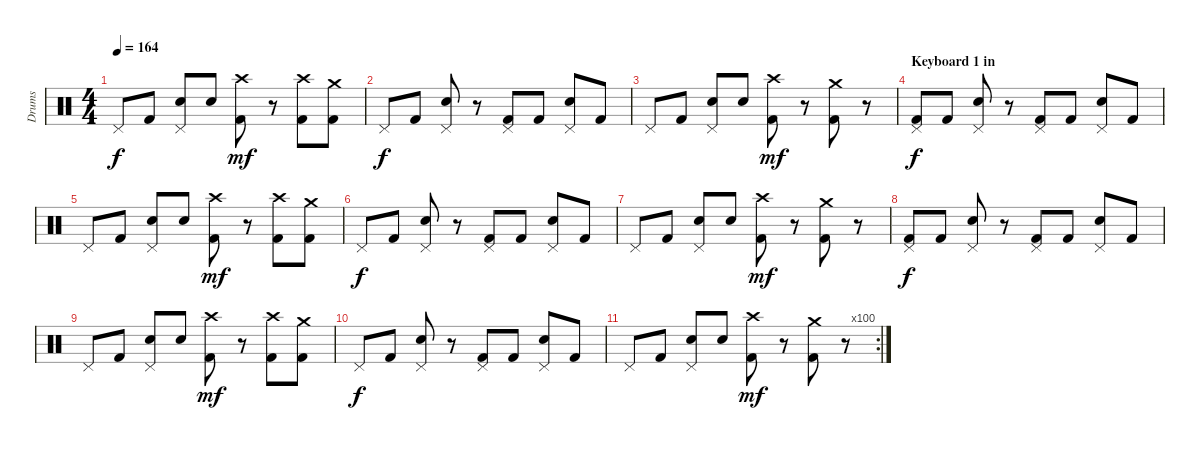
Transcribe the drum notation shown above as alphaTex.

\track ("Drums" "Drums") {instrument percussion}
\staff {score}
\articulation defaults
\ts (4 4)
\tempo 164
\clef neutral
\ks c "Pedal Hi-Hat (hit)".8{dy f} "Kick (hit) 2".8
("Pedal Hi-Hat (hit)" "Snare (hit) 2").8 "Snare (hit) 2".8 ("Crash high (hit)" "Kick (hit) 2").8{dy mf} r.8 ("Crash high (hit)" "Kick (hit) 2").8 ("Crash medium (hit)" "Kick (hit) 2").8 |
"Pedal Hi-Hat (hit)".8{dy f} "Kick (hit) 2".8 ("Pedal Hi-Hat (hit)" "Snare (hit) 2").8 r.8 ("Pedal Hi-Hat (hit)" "Kick (hit) 2").8 "Kick (hit) 2".8 ("Pedal Hi-Hat (hit)" "Snare (hit) 2").8 "Kick (hit) 2".8 |
"Pedal Hi-Hat (hit)".8 "Kick (hit) 2".8 ("Pedal Hi-Hat (hit)" "Snare (hit) 2").8 "Snare (hit) 2".8 ("Crash high (hit)" "Kick (hit) 2").8{dy mf} r.8 ("Crash medium (hit)" "Kick (hit) 2").8 r.8 |
\section ("" "Keyboard 1 in")
("Pedal Hi-Hat (hit)" "Kick (hit) 2").8{dy f} "Kick (hit) 2".8 ("Pedal Hi-Hat (hit)" "Snare (hit) 2").8 r.8 ("Pedal Hi-Hat (hit)" "Kick (hit) 2").8 "Kick (hit) 2".8 ("Pedal Hi-Hat (hit)" "Snare (hit) 2").8 "Kick (hit) 2".8 |
"Pedal Hi-Hat (hit)".8 "Kick (hit) 2".8 ("Pedal Hi-Hat (hit)" "Snare (hit) 2").8 "Snare (hit) 2".8 ("Crash high (hit)" "Kick (hit) 2").8{dy mf} r.8 ("Crash high (hit)" "Kick (hit) 2").8 ("Crash medium (hit)" "Kick (hit) 2").8 |
"Pedal Hi-Hat (hit)".8{dy f} "Kick (hit) 2".8 ("Pedal Hi-Hat (hit)" "Snare (hit) 2").8 r.8 ("Pedal Hi-Hat (hit)" "Kick (hit) 2").8 "Kick (hit) 2".8 ("Pedal Hi-Hat (hit)" "Snare (hit) 2").8 "Kick (hit) 2".8 |
"Pedal Hi-Hat (hit)".8 "Kick (hit) 2".8 ("Pedal Hi-Hat (hit)" "Snare (hit) 2").8 "Snare (hit) 2".8 ("Crash high (hit)" "Kick (hit) 2").8{dy mf} r.8 ("Crash medium (hit)" "Kick (hit) 2").8 r.8 |
("Pedal Hi-Hat (hit)" "Kick (hit) 2").8{dy f} "Kick (hit) 2".8 ("Pedal Hi-Hat (hit)" "Snare (hit) 2").8 r.8 ("Pedal Hi-Hat (hit)" "Kick (hit) 2").8 "Kick (hit) 2".8 ("Pedal Hi-Hat (hit)" "Snare (hit) 2").8 "Kick (hit) 2".8 |
"Pedal Hi-Hat (hit)".8 "Kick (hit) 2".8 ("Pedal Hi-Hat (hit)" "Snare (hit) 2").8 "Snare (hit) 2".8 ("Crash high (hit)" "Kick (hit) 2").8{dy mf} r.8 ("Crash high (hit)" "Kick (hit) 2").8 ("Crash medium (hit)" "Kick (hit) 2").8 |
"Pedal Hi-Hat (hit)".8{dy f} "Kick (hit) 2".8 ("Pedal Hi-Hat (hit)" "Snare (hit) 2").8 r.8 ("Pedal Hi-Hat (hit)" "Kick (hit) 2").8 "Kick (hit) 2".8 ("Pedal Hi-Hat (hit)" "Snare (hit) 2").8 "Kick (hit) 2".8 |
\rc 100 "Pedal Hi-Hat (hit)".8 "Kick (hit) 2".8
("Pedal Hi-Hat (hit)" "Snare (hit) 2").8 "Snare (hit) 2".8 ("Crash high (hit)" "Kick (hit) 2").8{dy mf} r.8 ("Crash medium (hit)" "Kick (hit) 2").8 r.8
